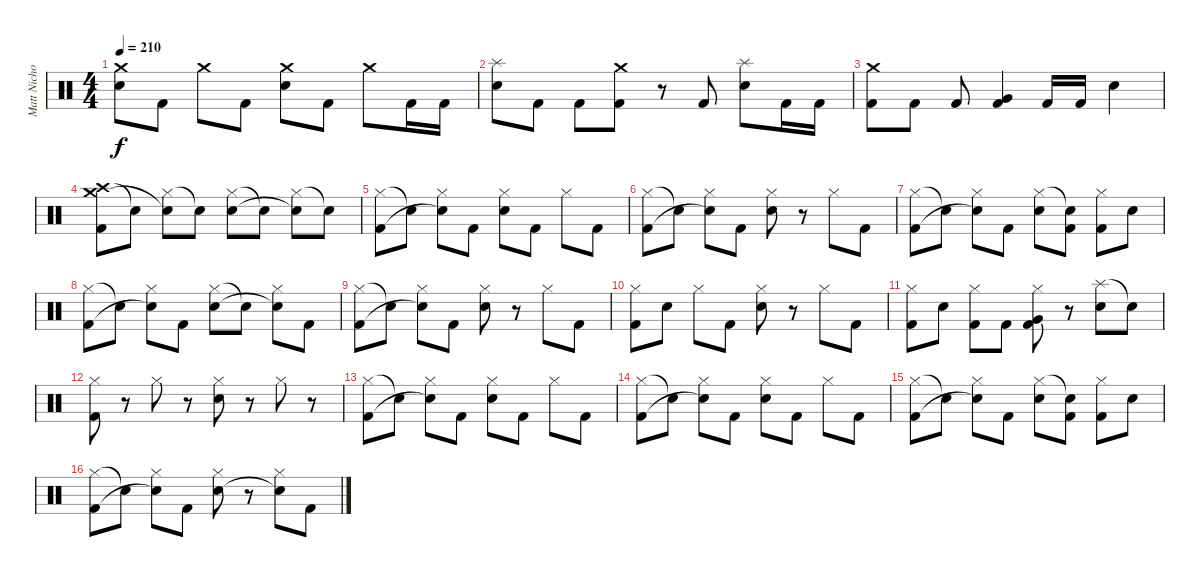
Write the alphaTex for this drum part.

\track ("Matt Nichols" "Matt Nicho") {instrument percussion}
\staff {score}
\articulation defaults
\ts (4 4)
\tempo 210
\clef neutral
\ks c
("Crash medium (hit)" "Electric Snare (hit)").8{dy f} "Kick (hit) 2".8 "Crash medium (hit)".8 "Kick (hit) 2".8 ("Crash medium (hit)" "Electric Snare (hit)").8 "Kick (hit) 2".8 "Crash medium (hit)".8 "Kick (hit) 2".16 "Kick (hit) 2".16 |
("Splash (hit)" "Electric Snare (hit)").8 "Kick (hit) 2".8 "Kick (hit) 2".8 ("Crash medium (hit)" "Kick (hit) 2").8 r.8 "Kick (hit) 2".8 ("Splash (hit)" "Electric Snare (hit)").8 "Kick (hit) 2".16 "Kick (hit) 2".16 |
("Crash medium (hit)" "Kick (hit) 2").8 "Kick (hit) 2".8 "Kick (hit) 2".8 ("Very Low Tom (hit)" "Kick (hit) 2").4 "Kick (hit) 2".16 "Kick (hit) 2".16 "Electric Snare (hit)".4 |
("Crash high (hit)" "Crash medium (hit)" "Kick (hit) 2").8 "Snare (hit)"{t}.8 ("Hi-Hat (closed)" "Snare (hit)"{t}).8 "Snare (hit)"{t}.8 ("Hi-Hat (closed)" "Electric Snare (hit)").8 "Snare (hit)"{t}.8 ("Hi-Hat (closed)" "Snare (hit)"{t}).8 "Snare (hit)"{t}.8 |
("Hi-Hat (closed)" "Kick (hit) 2").8 "Snare (hit)"{t}.8 ("Hi-Hat (closed)" "Snare (hit)"{t}).8 "Kick (hit) 2".8 ("Hi-Hat (closed)" "Electric Snare (hit)").8 "Kick (hit) 2".8 "Hi-Hat (closed)".8 "Kick (hit) 2".8 |
("Hi-Hat (closed)" "Kick (hit) 2").8 "Snare (hit)"{t}.8 ("Hi-Hat (closed)" "Snare (hit)"{t}).8 "Kick (hit) 2".8 ("Hi-Hat (closed)" "Electric Snare (hit)").8 r.8 "Hi-Hat (closed)".8 "Kick (hit) 2".8 |
("Hi-Hat (closed)" "Kick (hit) 2").8 "Snare (hit)"{t}.8 ("Hi-Hat (closed)" "Snare (hit)"{t}).8 "Kick (hit) 2".8 ("Hi-Hat (closed)" "Electric Snare (hit)").8 ("Snare (hit)"{t} "Kick (hit) 2").8 ("Hi-Hat (closed)" "Kick (hit) 2").8 "Electric Snare (hit)".8 |
("Hi-Hat (closed)" "Kick (hit) 2").8 "Snare (hit)"{t}.8 ("Hi-Hat (closed)" "Snare (hit)"{t}).8 "Kick (hit) 2".8 ("Hi-Hat (closed)" "Electric Snare (hit)").8 "Snare (hit)"{t}.8 ("Hi-Hat (closed)" "Snare (hit)"{t}).8 "Kick (hit) 2".8 |
("Hi-Hat (closed)" "Kick (hit) 2").8 "Snare (hit)"{t}.8 ("Hi-Hat (closed)" "Snare (hit)"{t}).8 "Kick (hit) 2".8 ("Hi-Hat (closed)" "Electric Snare (hit)").8 r.8 "Hi-Hat (closed)".8 "Kick (hit) 2".8 |
("Hi-Hat (closed)" "Kick (hit) 2").8 "Electric Snare (hit)".8 "Hi-Hat (closed)".8 "Kick (hit) 2".8 ("Hi-Hat (closed)" "Electric Snare (hit)").8 r.8 "Hi-Hat (closed)".8 "Kick (hit) 2".8 |
("Hi-Hat (closed)" "Kick (hit) 2").8 "Electric Snare (hit)".8 ("Hi-Hat (closed)" "Kick (hit) 2").8 "Kick (hit) 2".8 ("Hi-Hat (closed)" "Very Low Tom (hit)" "Kick (hit) 2").8 r.8 ("Splash (hit)" "Electric Snare (hit)").8 "Snare (hit)"{t}.8 |
("Hi-Hat (closed)" "Kick (hit) 2").8 r.8 "Hi-Hat (closed)".8 r.8 ("Hi-Hat (closed)" "Electric Snare (hit)").8 r.8 "Hi-Hat (closed)".8 r.8 |
("Hi-Hat (closed)" "Kick (hit) 2").8 "Snare (hit)"{t}.8 ("Hi-Hat (closed)" "Snare (hit)"{t}).8 "Kick (hit) 2".8 ("Hi-Hat (closed)" "Electric Snare (hit)").8 "Kick (hit) 2".8 "Hi-Hat (closed)".8 "Kick (hit) 2".8 |
("Hi-Hat (closed)" "Kick (hit) 2").8 "Snare (hit)"{t}.8 ("Hi-Hat (closed)" "Snare (hit)"{t}).8 "Kick (hit) 2".8 ("Hi-Hat (closed)" "Electric Snare (hit)").8 "Kick (hit) 2".8 "Hi-Hat (closed)".8 "Kick (hit) 2".8 |
("Hi-Hat (closed)" "Kick (hit) 2").8 "Snare (hit)"{t}.8 ("Hi-Hat (closed)" "Snare (hit)"{t}).8 "Kick (hit) 2".8 ("Hi-Hat (closed)" "Electric Snare (hit)").8 ("Snare (hit)"{t} "Kick (hit) 2").8 ("Hi-Hat (closed)" "Kick (hit) 2").8 "Electric Snare (hit)".8 |
("Hi-Hat (closed)" "Kick (hit) 2").8 "Snare (hit)"{t}.8 ("Hi-Hat (closed)" "Snare (hit)"{t}).8 "Kick (hit) 2".8 ("Hi-Hat (closed)" "Electric Snare (hit)").8 r.8 ("Hi-Hat (closed)" "Snare (hit)"{t}).8 "Kick (hit) 2".8
